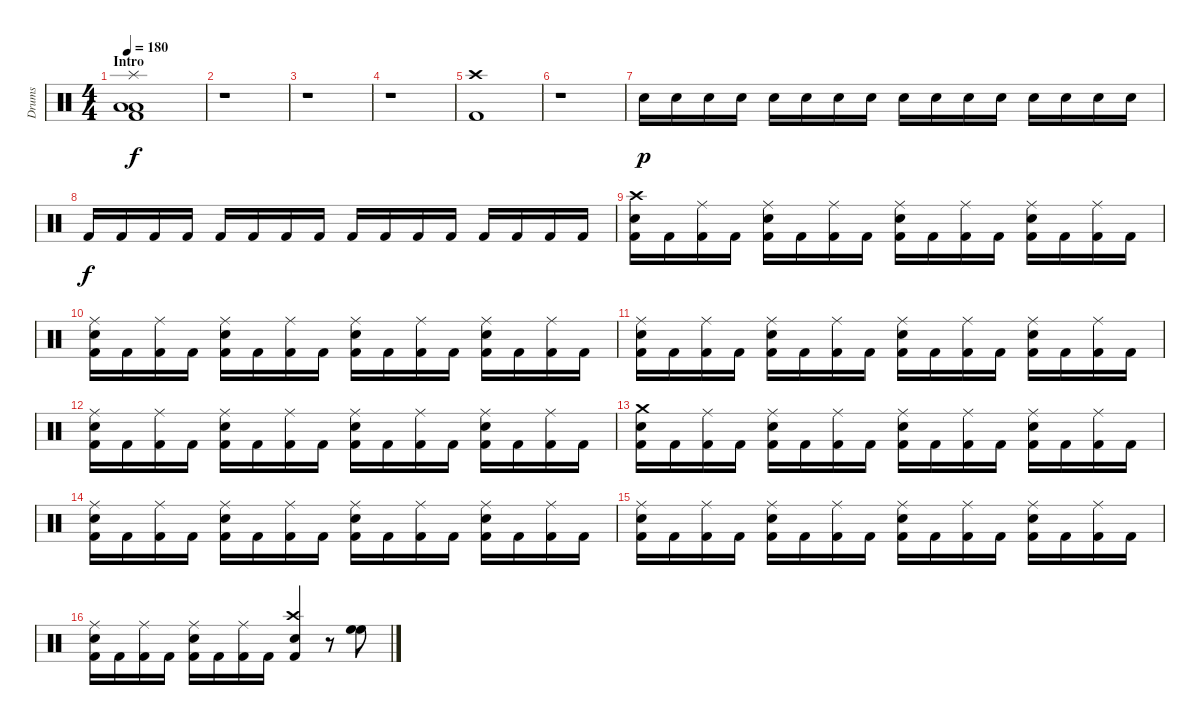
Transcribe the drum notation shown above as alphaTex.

\track ("Drums" "Drums") {instrument percussion}
\staff {score}
\articulation defaults
\ts (4 4)
\section ("" "Intro")
\tempo 180
\clef neutral
\ks c
("Splash (hit)" "Low Floor Tom (hit)" "Low Floor Tom (hit)" "Kick (hit) 2").1{dy f} |
r.1 |
r.1 |
r.1 |
("Crash high (hit)" "Kick (hit) 2").1 |
r.1 |
"Snare (hit) 2".16{dy p} "Snare (hit) 2".16 "Snare (hit) 2".16 "Snare (hit) 2".16 "Snare (hit) 2".16 "Snare (hit) 2".16 "Snare (hit) 2".16 "Snare (hit) 2".16 "Snare (hit) 2".16 "Snare (hit) 2".16 "Snare (hit) 2".16 "Snare (hit) 2".16 "Snare (hit) 2".16 "Snare (hit) 2".16 "Snare (hit) 2".16 "Snare (hit) 2".16 |
"Kick (hit) 2".16{dy f} "Kick (hit) 2".16 "Kick (hit) 2".16 "Kick (hit) 2".16 "Kick (hit) 2".16 "Kick (hit) 2".16 "Kick (hit) 2".16 "Kick (hit) 2".16 "Kick (hit) 2".16 "Kick (hit) 2".16 "Kick (hit) 2".16 "Kick (hit) 2".16 "Kick (hit) 2".16 "Kick (hit) 2".16 "Kick (hit) 2".16 "Kick (hit) 2".16 |
("Crash high (hit)" "Snare (hit) 2" "Kick (hit) 2").16 "Kick (hit) 2".16 ("Ride (middle)" "Kick (hit) 2").16 "Kick (hit) 2".16 ("Ride (middle)" "Snare (hit) 2" "Kick (hit) 2").16 "Kick (hit) 2".16 ("Ride (middle)" "Kick (hit) 2").16 "Kick (hit) 2".16 ("Ride (middle)" "Snare (hit) 2" "Kick (hit) 2").16 "Kick (hit) 2".16 ("Ride (middle)" "Kick (hit) 2").16 "Kick (hit) 2".16 ("Ride (middle)" "Snare (hit) 2" "Kick (hit) 2").16 "Kick (hit) 2".16 ("Ride (middle)" "Kick (hit) 2").16 "Kick (hit) 2".16 |
("Ride (middle)" "Snare (hit) 2" "Kick (hit) 2").16 "Kick (hit) 2".16 ("Ride (middle)" "Kick (hit) 2").16 "Kick (hit) 2".16 ("Ride (middle)" "Snare (hit) 2" "Kick (hit) 2").16 "Kick (hit) 2".16 ("Ride (middle)" "Kick (hit) 2").16 "Kick (hit) 2".16 ("Ride (middle)" "Snare (hit) 2" "Kick (hit) 2").16 "Kick (hit) 2".16 ("Ride (middle)" "Kick (hit) 2").16 "Kick (hit) 2".16 ("Ride (middle)" "Snare (hit) 2" "Kick (hit) 2").16 "Kick (hit) 2".16 ("Ride (middle)" "Kick (hit) 2").16 "Kick (hit) 2".16 |
("Ride (middle)" "Snare (hit) 2" "Kick (hit) 2").16 "Kick (hit) 2".16 ("Ride (middle)" "Kick (hit) 2").16 "Kick (hit) 2".16 ("Ride (middle)" "Snare (hit) 2" "Kick (hit) 2").16 "Kick (hit) 2".16 ("Ride (middle)" "Kick (hit) 2").16 "Kick (hit) 2".16 ("Ride (middle)" "Snare (hit) 2" "Kick (hit) 2").16 "Kick (hit) 2".16 ("Ride (middle)" "Kick (hit) 2").16 "Kick (hit) 2".16 ("Ride (middle)" "Snare (hit) 2" "Kick (hit) 2").16 "Kick (hit) 2".16 ("Ride (middle)" "Kick (hit) 2").16 "Kick (hit) 2".16 |
("Ride (middle)" "Snare (hit) 2" "Kick (hit) 2").16 "Kick (hit) 2".16 ("Ride (middle)" "Kick (hit) 2").16 "Kick (hit) 2".16 ("Ride (middle)" "Snare (hit) 2" "Kick (hit) 2").16 "Kick (hit) 2".16 ("Ride (middle)" "Kick (hit) 2").16 "Kick (hit) 2".16 ("Ride (middle)" "Snare (hit) 2" "Kick (hit) 2").16 "Kick (hit) 2".16 ("Ride (middle)" "Kick (hit) 2").16 "Kick (hit) 2".16 ("Ride (middle)" "Snare (hit) 2" "Kick (hit) 2").16 "Kick (hit) 2".16 ("Ride (middle)" "Kick (hit) 2").16 "Kick (hit) 2".16 |
("Crash medium (hit)" "Snare (hit) 2" "Kick (hit) 2").16 "Kick (hit) 2".16 ("Ride (middle)" "Kick (hit) 2").16 "Kick (hit) 2".16 ("Ride (middle)" "Snare (hit) 2" "Kick (hit) 2").16 "Kick (hit) 2".16 ("Ride (middle)" "Kick (hit) 2").16 "Kick (hit) 2".16 ("Ride (middle)" "Snare (hit) 2" "Kick (hit) 2").16 "Kick (hit) 2".16 ("Ride (middle)" "Kick (hit) 2").16 "Kick (hit) 2".16 ("Ride (middle)" "Snare (hit) 2" "Kick (hit) 2").16 "Kick (hit) 2".16 ("Ride (middle)" "Kick (hit) 2").16 "Kick (hit) 2".16 |
("Ride (middle)" "Snare (hit) 2" "Kick (hit) 2").16 "Kick (hit) 2".16 ("Ride (middle)" "Kick (hit) 2").16 "Kick (hit) 2".16 ("Ride (middle)" "Snare (hit) 2" "Kick (hit) 2").16 "Kick (hit) 2".16 ("Ride (middle)" "Kick (hit) 2").16 "Kick (hit) 2".16 ("Ride (middle)" "Snare (hit) 2" "Kick (hit) 2").16 "Kick (hit) 2".16 ("Ride (middle)" "Kick (hit) 2").16 "Kick (hit) 2".16 ("Ride (middle)" "Snare (hit) 2" "Kick (hit) 2").16 "Kick (hit) 2".16 ("Ride (middle)" "Kick (hit) 2").16 "Kick (hit) 2".16 |
("Ride (middle)" "Snare (hit) 2" "Kick (hit) 2").16 "Kick (hit) 2".16 ("Ride (middle)" "Kick (hit) 2").16 "Kick (hit) 2".16 ("Ride (middle)" "Snare (hit) 2" "Kick (hit) 2").16 "Kick (hit) 2".16 ("Ride (middle)" "Kick (hit) 2").16 "Kick (hit) 2".16 ("Ride (middle)" "Snare (hit) 2" "Kick (hit) 2").16 "Kick (hit) 2".16 ("Ride (middle)" "Kick (hit) 2").16 "Kick (hit) 2".16 ("Ride (middle)" "Snare (hit) 2" "Kick (hit) 2").16 "Kick (hit) 2".16 ("Ride (middle)" "Kick (hit) 2").16 "Kick (hit) 2".16 |
("Ride (middle)" "Snare (hit) 2" "Kick (hit) 2").16 "Kick (hit) 2".16 ("Ride (middle)" "Kick (hit) 2").16 "Kick (hit) 2".16 ("Ride (middle)" "Snare (hit) 2" "Kick (hit) 2").16 "Kick (hit) 2".16 ("Ride (middle)" "Kick (hit) 2").16 "Kick (hit) 2".16 ("Crash high (hit)" "Snare (hit) 2" "Kick (hit) 2").4 r.8 ("High Floor Tom (hit)" "High Floor Tom (hit)").8
